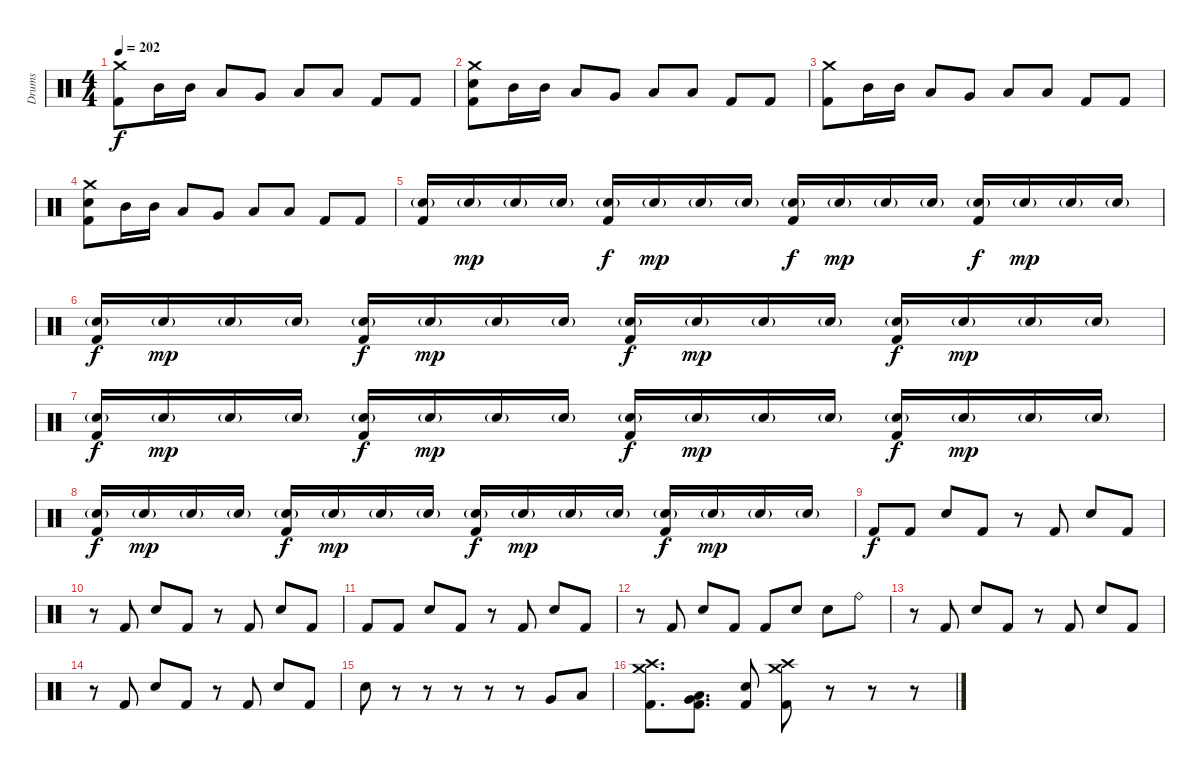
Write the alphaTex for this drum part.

\track ("Drums" "Drums") {instrument percussion}
\staff {score}
\articulation defaults
\ts (4 4)
\tempo 202
\clef neutral
\ks c
("Crash medium (hit)" "Kick (hit) 2").8{dy f} "Mid Tom (hit)".16 "Mid Tom (hit)".16 "Low Tom (hit)".8 "Very Low Tom (hit)".8 "Low Floor Tom (hit)".8 "Low Floor Tom (hit)".8 "Kick (hit) 2".8 "Kick (hit) 2".8 |
("Crash medium (hit)" "Electric Snare (hit)" "Kick (hit) 2").8 "Mid Tom (hit)".16 "Mid Tom (hit)".16 "Low Tom (hit)".8 "Very Low Tom (hit)".8 "Low Floor Tom (hit)".8 "Low Floor Tom (hit)".8 "Kick (hit) 2".8 "Kick (hit) 2".8 |
("Crash medium (hit)" "Kick (hit) 2").8 "Mid Tom (hit)".16 "Mid Tom (hit)".16 "Low Tom (hit)".8 "Very Low Tom (hit)".8 "Low Floor Tom (hit)".8 "Low Floor Tom (hit)".8 "Kick (hit) 2".8 "Kick (hit) 2".8 |
("Crash medium (hit)" "Electric Snare (hit)" "Kick (hit) 2").8 "Mid Tom (hit)".16 "Mid Tom (hit)".16 "Low Tom (hit)".8 "Very Low Tom (hit)".8 "Low Floor Tom (hit)".8 "Low Floor Tom (hit)".8 "Kick (hit) 2".8 "Kick (hit) 2".8 |
("Snare (hit) 2"{g} "Kick (hit) 2").16 "Snare (hit) 2"{g}.16{dy mp} "Snare (hit) 2"{g}.16 "Snare (hit) 2"{g}.16 ("Snare (hit) 2"{g} "Kick (hit) 2").16{dy f} "Snare (hit) 2"{g}.16{dy mp} "Snare (hit) 2"{g}.16 "Snare (hit) 2"{g}.16 ("Snare (hit) 2"{g} "Kick (hit) 2").16{dy f} "Snare (hit) 2"{g}.16{dy mp} "Snare (hit) 2"{g}.16 "Snare (hit) 2"{g}.16 ("Snare (hit) 2"{g} "Kick (hit) 2").16{dy f} "Snare (hit) 2"{g}.16{dy mp} "Snare (hit) 2"{g}.16 "Snare (hit) 2"{g}.16 |
("Snare (hit) 2"{g} "Kick (hit) 2").16{dy f} "Snare (hit) 2"{g}.16{dy mp} "Snare (hit) 2"{g}.16 "Snare (hit) 2"{g}.16 ("Snare (hit) 2"{g} "Kick (hit) 2").16{dy f} "Snare (hit) 2"{g}.16{dy mp} "Snare (hit) 2"{g}.16 "Snare (hit) 2"{g}.16 ("Snare (hit) 2"{g} "Kick (hit) 2").16{dy f} "Snare (hit) 2"{g}.16{dy mp} "Snare (hit) 2"{g}.16 "Snare (hit) 2"{g}.16 ("Snare (hit) 2"{g} "Kick (hit) 2").16{dy f} "Snare (hit) 2"{g}.16{dy mp} "Snare (hit) 2"{g}.16 "Snare (hit) 2"{g}.16 |
("Snare (hit) 2"{g} "Kick (hit) 2").16{dy f} "Snare (hit) 2"{g}.16{dy mp} "Snare (hit) 2"{g}.16 "Snare (hit) 2"{g}.16 ("Snare (hit) 2"{g} "Kick (hit) 2").16{dy f} "Snare (hit) 2"{g}.16{dy mp} "Snare (hit) 2"{g}.16 "Snare (hit) 2"{g}.16 ("Snare (hit) 2"{g} "Kick (hit) 2").16{dy f} "Snare (hit) 2"{g}.16{dy mp} "Snare (hit) 2"{g}.16 "Snare (hit) 2"{g}.16 ("Snare (hit) 2"{g} "Kick (hit) 2").16{dy f} "Snare (hit) 2"{g}.16{dy mp} "Snare (hit) 2"{g}.16 "Snare (hit) 2"{g}.16 |
("Snare (hit) 2"{g} "Kick (hit) 2").16{dy f} "Snare (hit) 2"{g}.16{dy mp} "Snare (hit) 2"{g}.16 "Snare (hit) 2"{g}.16 ("Snare (hit) 2"{g} "Kick (hit) 2").16{dy f} "Snare (hit) 2"{g}.16{dy mp} "Snare (hit) 2"{g}.16 "Snare (hit) 2"{g}.16 ("Snare (hit) 2"{g} "Kick (hit) 2").16{dy f} "Snare (hit) 2"{g}.16{dy mp} "Snare (hit) 2"{g}.16 "Snare (hit) 2"{g}.16 ("Snare (hit) 2"{g} "Kick (hit) 2").16{dy f} "Snare (hit) 2"{g}.16{dy mp} "Snare (hit) 2"{g}.16 "Snare (hit) 2"{g}.16 |
"Kick (hit) 2".8{dy f} "Kick (hit) 2".8 "Electric Snare (hit)".8 "Kick (hit) 2".8 r.8 "Kick (hit) 2".8 "Electric Snare (hit)".8 "Kick (hit) 2".8 |
r.8 "Kick (hit) 2".8 "Electric Snare (hit)".8 "Kick (hit) 2".8 r.8 "Kick (hit) 2".8 "Electric Snare (hit)".8 "Kick (hit) 2".8 |
"Kick (hit) 2".8 "Kick (hit) 2".8 "Electric Snare (hit)".8 "Kick (hit) 2".8 r.8 "Kick (hit) 2".8 "Electric Snare (hit)".8 "Kick (hit) 2".8 |
r.8 "Kick (hit) 2".8 "Electric Snare (hit)".8 "Kick (hit) 2".8 "Kick (hit) 2".8 "Electric Snare (hit)".8 "Electric Snare (hit)".8 "Ride (bell)".8 |
r.8 "Kick (hit) 2".8 "Electric Snare (hit)".8 "Kick (hit) 2".8 r.8 "Kick (hit) 2".8 "Electric Snare (hit)".8 "Kick (hit) 2".8 |
r.8 "Kick (hit) 2".8 "Electric Snare (hit)".8 "Kick (hit) 2".8 r.8 "Kick (hit) 2".8 "Electric Snare (hit)".8 "Kick (hit) 2".8 |
"Electric Snare (hit)".8 r.8 r.8 r.8 r.8 r.8 "Very Low Tom (hit)".8 "Low Floor Tom (hit)".8 |
("Crash medium (hit)" "Crash high (hit)" "Kick (hit) 2").8{d} ("Low Floor Tom (hit)" "Very Low Tom (hit)" "Kick (hit) 2").8{d} ("Electric Snare (hit)" "Kick (hit) 2").8 ("Crash medium (hit)" "Crash high (hit)" "Kick (hit) 2").8 r.8 r.8 r.8
